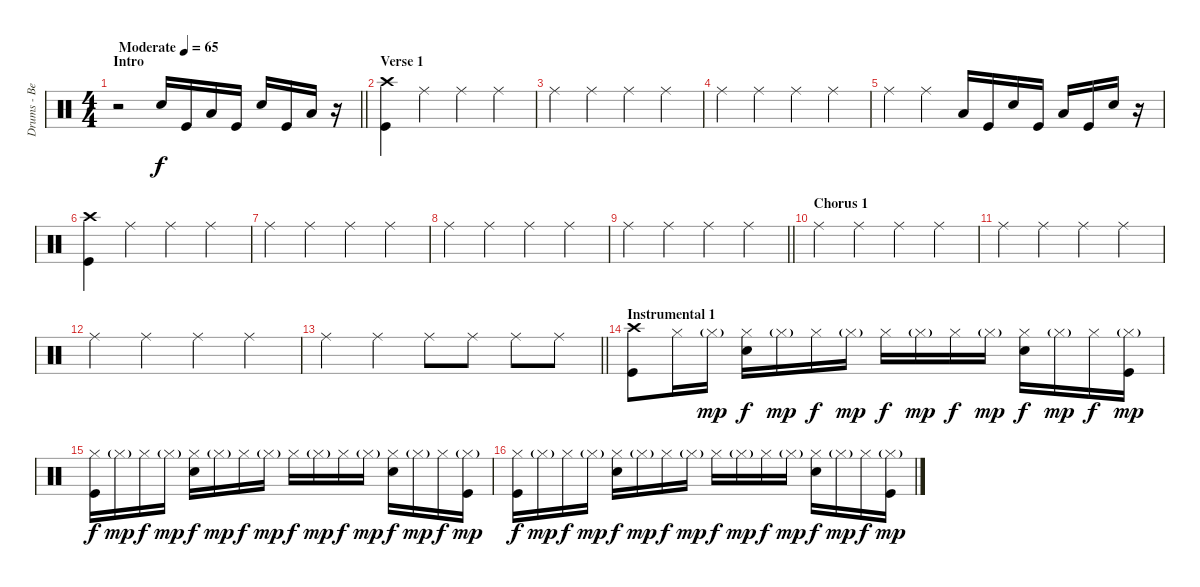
\track ("Drums - Ben Johnston" "Drums - Be") {instrument percussion}
\staff {score}
\articulation defaults
\ts (4 4)
\section ("" "Intro")
\tempo (65 "Moderate")
\clef neutral
\barLineRight lightlight
\ks c
r.2{dy f} "Snare (hit) 2".16 "Kick (hit)".16 "Low Tom (hit)".16 "Kick (hit)".16 "Snare (hit) 2".16 "Kick (hit)".16 "Low Tom (hit)".16 r.16 |
\section ("" "Verse 1")
("Crash high (hit)" "Kick (hit)").4 "Ride (middle)".4 "Ride (middle)".4 "Ride (middle)".4 |
"Ride (middle)".4 "Ride (middle)".4 "Ride (middle)".4 "Ride (middle)".4 |
"Ride (middle)".4 "Ride (middle)".4 "Ride (middle)".4 "Ride (middle)".4 |
"Ride (middle)".4 "Ride (middle)".4 "Low Tom (hit)".16 "Kick (hit)".16 "Snare (hit) 2".16 "Kick (hit)".16 "Low Tom (hit)".16 "Kick (hit)".16 "Snare (hit) 2".16 r.16 |
("Crash high (hit)" "Kick (hit)").4 "Ride (middle)".4 "Ride (middle)".4 "Ride (middle)".4 |
"Ride (middle)".4 "Ride (middle)".4 "Ride (middle)".4 "Ride (middle)".4 |
"Ride (middle)".4 "Ride (middle)".4 "Ride (middle)".4 "Ride (middle)".4 |
\barLineRight lightlight "Ride (middle)".4 "Ride (middle)".4 "Ride (middle)".4 "Ride (middle)".4
|
\section ("" "Chorus 1")
"Ride (middle)".4 "Ride (middle)".4 "Ride (middle)".4 "Ride (middle)".4 |
"Ride (middle)".4 "Ride (middle)".4 "Ride (middle)".4 "Ride (middle)".4 |
"Ride (middle)".4 "Ride (middle)".4 "Ride (middle)".4 "Ride (middle)".4 |
\barLineRight lightlight "Ride (middle)".4 "Ride (middle)".4 "Ride (middle)".8 "Ride (middle)".8 "Ride (middle)".8 "Ride (middle)".8
|
\section ("" "Instrumental 1")
("Crash high (hit)" "Kick (hit)").8 "Hi-Hat (closed)".16 "Hi-Hat (closed)"{g}.16{dy mp} ("Hi-Hat (closed)" "Snare (hit) 2").16{dy f} "Hi-Hat (closed)"{g}.16{dy mp} "Hi-Hat (closed)".16{dy f} "Hi-Hat (closed)"{g}.16{dy mp} "Hi-Hat (closed)".16{dy f} "Hi-Hat (closed)"{g}.16{dy mp} "Hi-Hat (closed)".16{dy f} "Hi-Hat (closed)"{g}.16{dy mp} ("Hi-Hat (closed)" "Snare (hit) 2").16{dy f} "Hi-Hat (closed)"{g}.16{dy mp} "Hi-Hat (closed)".16{dy f} ("Hi-Hat (closed)"{g} "Kick (hit)").16{dy mp} |
("Hi-Hat (closed)" "Kick (hit)").16{dy f} "Hi-Hat (closed)"{g}.16{dy mp} "Hi-Hat (closed)".16{dy f} "Hi-Hat (closed)"{g}.16{dy mp} ("Hi-Hat (closed)" "Snare (hit) 2").16{dy f} "Hi-Hat (closed)"{g}.16{dy mp} "Hi-Hat (closed)".16{dy f} "Hi-Hat (closed)"{g}.16{dy mp} "Hi-Hat (closed)".16{dy f} "Hi-Hat (closed)"{g}.16{dy mp} "Hi-Hat (closed)".16{dy f} "Hi-Hat (closed)"{g}.16{dy mp} ("Hi-Hat (closed)" "Snare (hit) 2").16{dy f} "Hi-Hat (closed)"{g}.16{dy mp} "Hi-Hat (closed)".16{dy f} ("Hi-Hat (closed)"{g} "Kick (hit)").16{dy mp} |
("Hi-Hat (closed)" "Kick (hit)").16{dy f} "Hi-Hat (closed)"{g}.16{dy mp} "Hi-Hat (closed)".16{dy f} "Hi-Hat (closed)"{g}.16{dy mp} ("Hi-Hat (closed)" "Snare (hit) 2").16{dy f} "Hi-Hat (closed)"{g}.16{dy mp} "Hi-Hat (closed)".16{dy f} "Hi-Hat (closed)"{g}.16{dy mp} "Hi-Hat (closed)".16{dy f} "Hi-Hat (closed)"{g}.16{dy mp} "Hi-Hat (closed)".16{dy f} "Hi-Hat (closed)"{g}.16{dy mp} ("Hi-Hat (closed)" "Snare (hit) 2").16{dy f} "Hi-Hat (closed)"{g}.16{dy mp} "Hi-Hat (closed)".16{dy f} ("Hi-Hat (closed)"{g} "Kick (hit)").16{dy mp}
